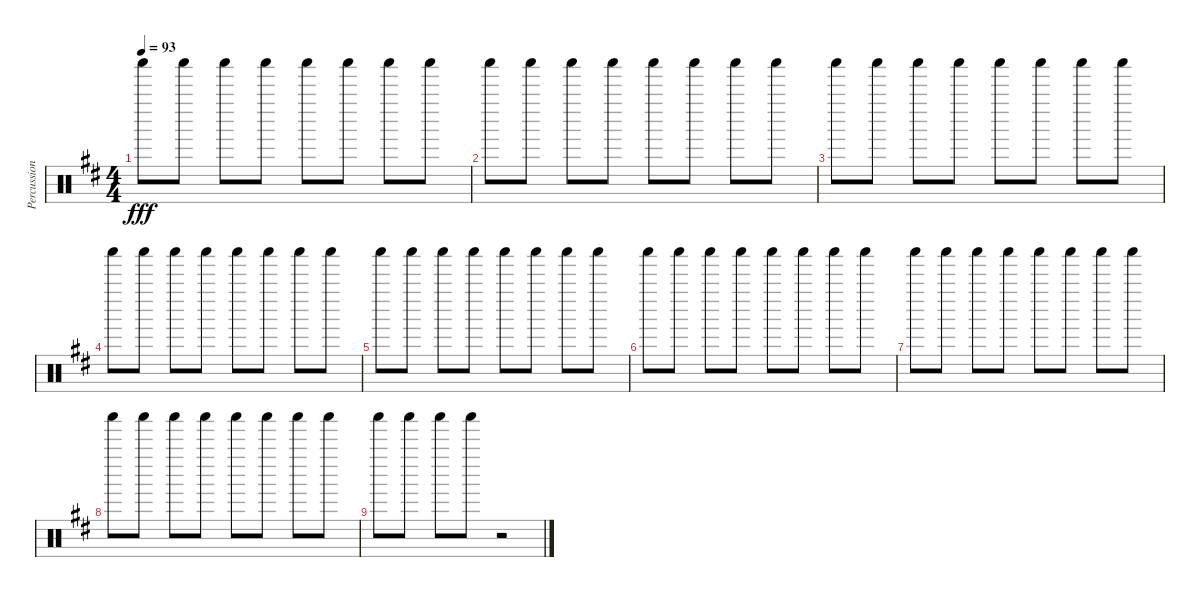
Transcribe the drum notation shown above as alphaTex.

\track ("Percussions" "Percussion") {instrument percussion}
\staff {score}
\articulation defaults
\ts (4 4)
\tempo 93
\clef neutral
\ks d "Shaker (hit)".8{dy fff beam Down} "Shaker (hit)".8{beam Down} "Shaker (hit)".8{beam Down} "Shaker (hit)".8{beam Down} "Shaker (hit)".8{beam Down} "Shaker (hit)".8{beam Down} "Shaker (hit)".8{beam Down} "Shaker (hit)".8{beam Down}
|
"Shaker (hit)".8{beam Down} "Shaker (hit)".8{beam Down} "Shaker (hit)".8{beam Down} "Shaker (hit)".8{beam Down} "Shaker (hit)".8{beam Down} "Shaker (hit)".8{beam Down} "Shaker (hit)".8{beam Down} "Shaker (hit)".8{beam Down} |
"Shaker (hit)".8{beam Down} "Shaker (hit)".8{beam Down} "Shaker (hit)".8{beam Down} "Shaker (hit)".8{beam Down} "Shaker (hit)".8{beam Down} "Shaker (hit)".8{beam Down} "Shaker (hit)".8{beam Down} "Shaker (hit)".8{beam Down} |
"Shaker (hit)".8{beam Down} "Shaker (hit)".8{beam Down} "Shaker (hit)".8{beam Down} "Shaker (hit)".8{beam Down} "Shaker (hit)".8{beam Down} "Shaker (hit)".8{beam Down} "Shaker (hit)".8{beam Down} "Shaker (hit)".8{beam Down} |
"Shaker (hit)".8{beam Down} "Shaker (hit)".8{beam Down} "Shaker (hit)".8{beam Down} "Shaker (hit)".8{beam Down} "Shaker (hit)".8{beam Down} "Shaker (hit)".8{beam Down} "Shaker (hit)".8{beam Down} "Shaker (hit)".8{beam Down} |
"Shaker (hit)".8{beam Down} "Shaker (hit)".8{beam Down} "Shaker (hit)".8{beam Down} "Shaker (hit)".8{beam Down} "Shaker (hit)".8{beam Down} "Shaker (hit)".8{beam Down} "Shaker (hit)".8{beam Down} "Shaker (hit)".8{beam Down} |
"Shaker (hit)".8{beam Down} "Shaker (hit)".8{beam Down} "Shaker (hit)".8{beam Down} "Shaker (hit)".8{beam Down} "Shaker (hit)".8{beam Down} "Shaker (hit)".8{beam Down} "Shaker (hit)".8{beam Down} "Shaker (hit)".8{beam Down} |
"Shaker (hit)".8{beam Down} "Shaker (hit)".8{beam Down} "Shaker (hit)".8{beam Down} "Shaker (hit)".8{beam Down} "Shaker (hit)".8{beam Down} "Shaker (hit)".8{beam Down} "Shaker (hit)".8{beam Down} "Shaker (hit)".8{beam Down} |
"Shaker (hit)".8{beam Down} "Shaker (hit)".8{beam Down} "Shaker (hit)".8{beam Down} "Shaker (hit)".8{beam Down} r.2
